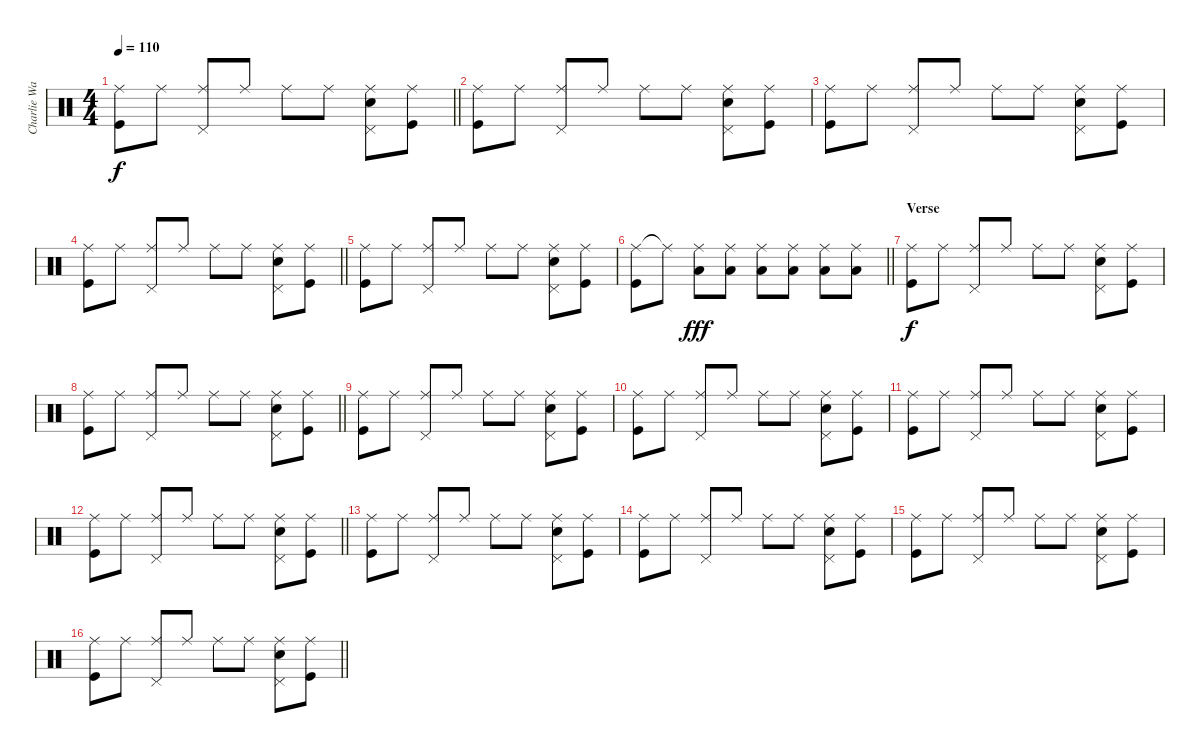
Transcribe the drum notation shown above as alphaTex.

\track ("Charlie Watts" "Charlie Wa") {instrument percussion}
\staff {score}
\articulation defaults
\ts (4 4)
\tempo 110
\clef neutral
\barLineRight lightlight
\ks c
("Ride (middle)" "Kick (hit)").8{dy f} "Ride (middle)".8 ("Ride (middle)" "Pedal Hi-Hat (hit)").8 "Ride (middle)".8 "Ride (middle)".8 "Ride (middle)".8 ("Ride (middle)" "Snare (hit) 2" "Pedal Hi-Hat (hit)").8 ("Ride (middle)" "Kick (hit)").8 |
("Ride (middle)" "Kick (hit)").8 "Ride (middle)".8 ("Ride (middle)" "Pedal Hi-Hat (hit)").8 "Ride (middle)".8 "Ride (middle)".8 "Ride (middle)".8 ("Ride (middle)" "Snare (hit) 2" "Pedal Hi-Hat (hit)").8 ("Ride (middle)" "Kick (hit)").8 |
("Ride (middle)" "Kick (hit)").8 "Ride (middle)".8 ("Ride (middle)" "Pedal Hi-Hat (hit)").8 "Ride (middle)".8 "Ride (middle)".8 "Ride (middle)".8 ("Ride (middle)" "Snare (hit) 2" "Pedal Hi-Hat (hit)").8 ("Ride (middle)" "Kick (hit)").8 |
\barLineRight lightlight
("Ride (middle)" "Kick (hit)").8 "Ride (middle)".8 ("Ride (middle)" "Pedal Hi-Hat (hit)").8 "Ride (middle)".8 "Ride (middle)".8 "Ride (middle)".8 ("Ride (middle)" "Snare (hit) 2" "Pedal Hi-Hat (hit)").8 ("Ride (middle)" "Kick (hit)").8 |
("Ride (middle)" "Kick (hit)").8 "Ride (middle)".8 ("Ride (middle)" "Pedal Hi-Hat (hit)").8 "Ride (middle)".8 "Ride (middle)".8 "Ride (middle)".8 ("Ride (middle)" "Snare (hit) 2" "Pedal Hi-Hat (hit)").8 ("Ride (middle)" "Kick (hit)").8 |
\barLineRight lightlight
("Ride (middle)" "Kick (hit)").8 "Ride (middle)"{t}.8 ("Ride (middle)" "Low Tom (hit)").8{dy fff} ("Ride (middle)" "Low Tom (hit)").8 ("Ride (middle)" "Low Tom (hit)").8 ("Ride (middle)" "Low Tom (hit)").8 ("Ride (middle)" "Low Tom (hit)").8 ("Ride (middle)" "Low Tom (hit)").8 |
\section ("" "Verse")
("Ride (middle)" "Kick (hit)").8{dy f} "Ride (middle)".8 ("Ride (middle)" "Pedal Hi-Hat (hit)").8 "Ride (middle)".8 "Ride (middle)".8 "Ride (middle)".8 ("Ride (middle)" "Snare (hit) 2" "Pedal Hi-Hat (hit)").8 ("Ride (middle)" "Kick (hit)").8 |
\barLineRight lightlight
("Ride (middle)" "Kick (hit)").8 "Ride (middle)".8 ("Ride (middle)" "Pedal Hi-Hat (hit)").8 "Ride (middle)".8 "Ride (middle)".8 "Ride (middle)".8 ("Ride (middle)" "Snare (hit) 2" "Pedal Hi-Hat (hit)").8 ("Ride (middle)" "Kick (hit)").8 |
("Ride (middle)" "Kick (hit)").8 "Ride (middle)".8 ("Ride (middle)" "Pedal Hi-Hat (hit)").8 "Ride (middle)".8 "Ride (middle)".8 "Ride (middle)".8 ("Ride (middle)" "Snare (hit) 2" "Pedal Hi-Hat (hit)").8 ("Ride (middle)" "Kick (hit)").8 |
("Ride (middle)" "Kick (hit)").8 "Ride (middle)".8 ("Ride (middle)" "Pedal Hi-Hat (hit)").8 "Ride (middle)".8 "Ride (middle)".8 "Ride (middle)".8 ("Ride (middle)" "Snare (hit) 2" "Pedal Hi-Hat (hit)").8 ("Ride (middle)" "Kick (hit)").8 |
("Ride (middle)" "Kick (hit)").8 "Ride (middle)".8 ("Ride (middle)" "Pedal Hi-Hat (hit)").8 "Ride (middle)".8 "Ride (middle)".8 "Ride (middle)".8 ("Ride (middle)" "Snare (hit) 2" "Pedal Hi-Hat (hit)").8 ("Ride (middle)" "Kick (hit)").8 |
\barLineRight lightlight
("Ride (middle)" "Kick (hit)").8 "Ride (middle)".8 ("Ride (middle)" "Pedal Hi-Hat (hit)").8 "Ride (middle)".8 "Ride (middle)".8 "Ride (middle)".8 ("Ride (middle)" "Snare (hit) 2" "Pedal Hi-Hat (hit)").8 ("Ride (middle)" "Kick (hit)").8 |
("Ride (middle)" "Kick (hit)").8 "Ride (middle)".8 ("Ride (middle)" "Pedal Hi-Hat (hit)").8 "Ride (middle)".8 "Ride (middle)".8 "Ride (middle)".8 ("Ride (middle)" "Snare (hit) 2" "Pedal Hi-Hat (hit)").8 ("Ride (middle)" "Kick (hit)").8 |
("Ride (middle)" "Kick (hit)").8 "Ride (middle)".8 ("Ride (middle)" "Pedal Hi-Hat (hit)").8 "Ride (middle)".8 "Ride (middle)".8 "Ride (middle)".8 ("Ride (middle)" "Snare (hit) 2" "Pedal Hi-Hat (hit)").8 ("Ride (middle)" "Kick (hit)").8 |
("Ride (middle)" "Kick (hit)").8 "Ride (middle)".8 ("Ride (middle)" "Pedal Hi-Hat (hit)").8 "Ride (middle)".8 "Ride (middle)".8 "Ride (middle)".8 ("Ride (middle)" "Snare (hit) 2" "Pedal Hi-Hat (hit)").8 ("Ride (middle)" "Kick (hit)").8 |
\barLineRight lightlight
("Ride (middle)" "Kick (hit)").8 "Ride (middle)".8 ("Ride (middle)" "Pedal Hi-Hat (hit)").8 "Ride (middle)".8 "Ride (middle)".8 "Ride (middle)".8 ("Ride (middle)" "Snare (hit) 2" "Pedal Hi-Hat (hit)").8 ("Ride (middle)" "Kick (hit)").8
